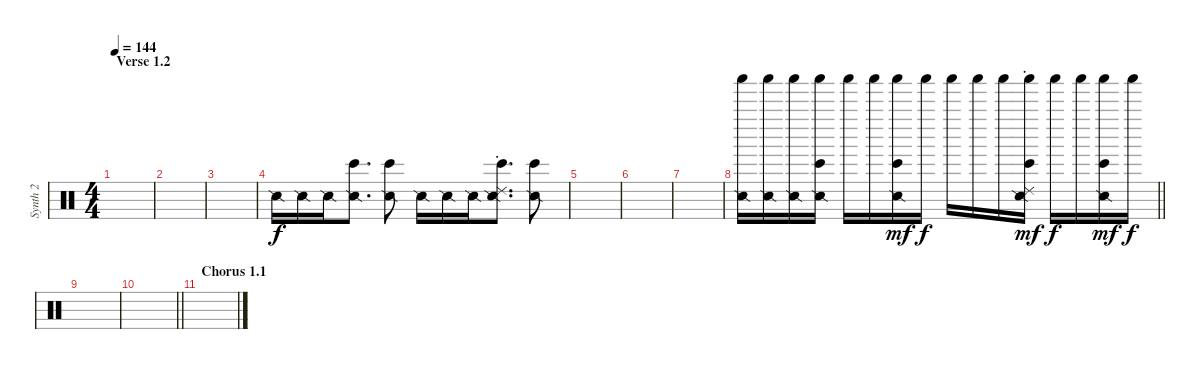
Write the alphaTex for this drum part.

\track ("Synth 2" "Synth 2") {instrument percussion}
\staff {score}
\articulation defaults
\ts (4 4)
\section ("" "Verse 1.2")
\tempo 144
\clef neutral
\ks c
|
|
|
"Snare (side stick) 2".16 "Snare (side stick) 2".16 "Snare (side stick) 2".16 ("Bongo High (hit)" "Snare (side stick) 2").8{d} ("Bongo High (hit)" "Snare (side stick) 2").8 "Snare (side stick) 2".16 "Snare (side stick) 2".16 "Snare (side stick) 2".16 ("Ride (choke) 2" "Bongo High (hit)" "Snare (side stick) 2").8{d} ("Bongo High (hit)" "Snare (side stick) 2").8 |
|
|
|
\barLineRight lightlight
("Snare (side stick) 2" "Shaker (hit)").16 ("Snare (side stick) 2" "Shaker (hit)").16 ("Snare (side stick) 2" "Shaker (hit)").16 ("Bongo High (hit)" "Snare (side stick) 2" "Shaker (hit)").16 "Shaker (hit)".16{dy f} "Shaker (hit)".16 ("Bongo High (hit)" "Snare (side stick) 2" "Shaker (hit)").16{dy mf} "Shaker (hit)".16{dy f} "Shaker (hit)".16 "Shaker (hit)".16 "Shaker (hit)".16 ("Ride (choke) 2" "Bongo High (hit)" "Snare (side stick) 2" "Shaker (hit)").16{dy mf} "Shaker (hit)".16{dy f} "Shaker (hit)".16 ("Bongo High (hit)" "Snare (side stick) 2" "Shaker (hit)").16{dy mf} "Shaker (hit)".16{dy f} |
|
\barLineRight lightlight
|
\section ("" "Chorus 1.1")
